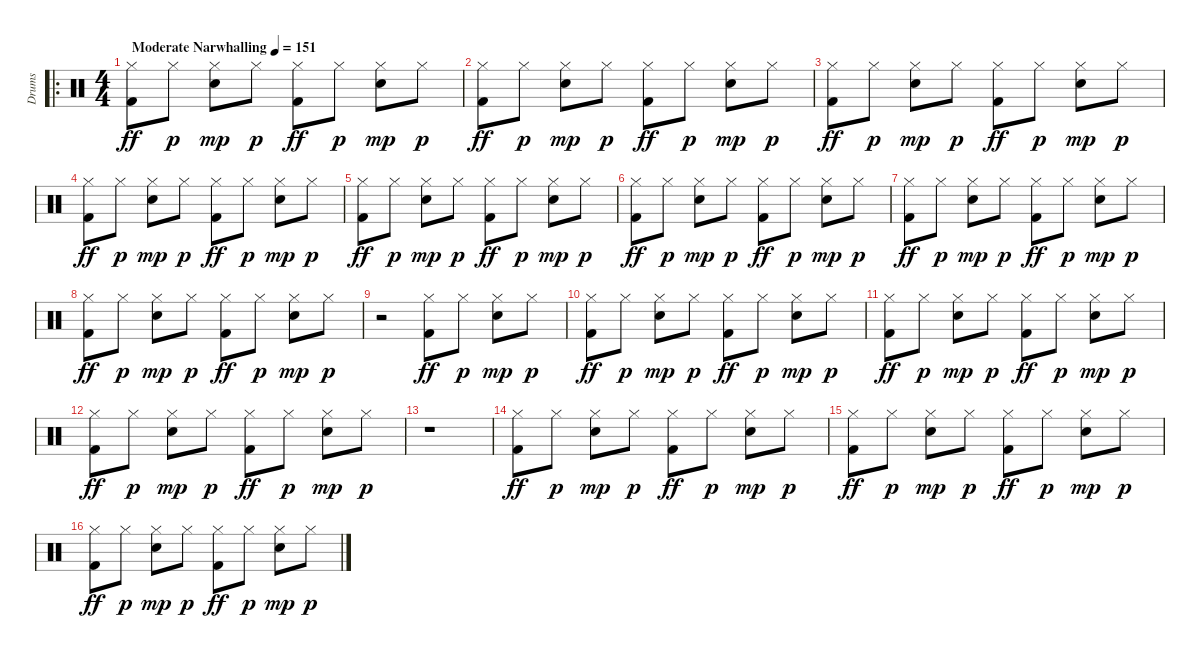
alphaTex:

\track ("Drums" "Drums") {instrument percussion}
\staff {score}
\articulation defaults
\ro
\ts (4 4)
\tempo (151 "Moderate Narwhalling")
\clef neutral
\ks c
("Hi-Hat (closed)" "Kick (hit) 2").8{dy ff} "Hi-Hat (closed)".8{dy p} ("Hi-Hat (closed)" "Snare (hit) 2").8{dy mp} "Hi-Hat (closed)".8{dy p} ("Hi-Hat (closed)" "Kick (hit) 2").8{dy ff} "Hi-Hat (closed)".8{dy p} ("Hi-Hat (closed)" "Snare (hit) 2").8{dy mp} "Hi-Hat (closed)".8{dy p} |
("Hi-Hat (closed)" "Kick (hit) 2").8{dy ff} "Hi-Hat (closed)".8{dy p} ("Hi-Hat (closed)" "Snare (hit) 2").8{dy mp} "Hi-Hat (closed)".8{dy p} ("Hi-Hat (closed)" "Kick (hit) 2").8{dy ff} "Hi-Hat (closed)".8{dy p} ("Hi-Hat (closed)" "Snare (hit) 2").8{dy mp} "Hi-Hat (closed)".8{dy p} |
("Hi-Hat (closed)" "Kick (hit) 2").8{dy ff} "Hi-Hat (closed)".8{dy p} ("Hi-Hat (closed)" "Snare (hit) 2").8{dy mp} "Hi-Hat (closed)".8{dy p} ("Hi-Hat (closed)" "Kick (hit) 2").8{dy ff} "Hi-Hat (closed)".8{dy p} ("Hi-Hat (closed)" "Snare (hit) 2").8{dy mp} "Hi-Hat (closed)".8{dy p} |
("Hi-Hat (closed)" "Kick (hit) 2").8{dy ff} "Hi-Hat (closed)".8{dy p} ("Hi-Hat (closed)" "Snare (hit) 2").8{dy mp} "Hi-Hat (closed)".8{dy p} ("Hi-Hat (closed)" "Kick (hit) 2").8{dy ff} "Hi-Hat (closed)".8{dy p} ("Hi-Hat (closed)" "Snare (hit) 2").8{dy mp} "Hi-Hat (closed)".8{dy p} |
("Hi-Hat (closed)" "Kick (hit) 2").8{dy ff} "Hi-Hat (closed)".8{dy p} ("Hi-Hat (closed)" "Snare (hit) 2").8{dy mp} "Hi-Hat (closed)".8{dy p} ("Hi-Hat (closed)" "Kick (hit) 2").8{dy ff} "Hi-Hat (closed)".8{dy p} ("Hi-Hat (closed)" "Snare (hit) 2").8{dy mp} "Hi-Hat (closed)".8{dy p} |
("Hi-Hat (closed)" "Kick (hit) 2").8{dy ff} "Hi-Hat (closed)".8{dy p} ("Hi-Hat (closed)" "Snare (hit) 2").8{dy mp} "Hi-Hat (closed)".8{dy p} ("Hi-Hat (closed)" "Kick (hit) 2").8{dy ff} "Hi-Hat (closed)".8{dy p} ("Hi-Hat (closed)" "Snare (hit) 2").8{dy mp} "Hi-Hat (closed)".8{dy p} |
("Hi-Hat (closed)" "Kick (hit) 2").8{dy ff} "Hi-Hat (closed)".8{dy p} ("Hi-Hat (closed)" "Snare (hit) 2").8{dy mp} "Hi-Hat (closed)".8{dy p} ("Hi-Hat (closed)" "Kick (hit) 2").8{dy ff} "Hi-Hat (closed)".8{dy p} ("Hi-Hat (closed)" "Snare (hit) 2").8{dy mp} "Hi-Hat (closed)".8{dy p} |
("Hi-Hat (closed)" "Kick (hit) 2").8{dy ff} "Hi-Hat (closed)".8{dy p} ("Hi-Hat (closed)" "Snare (hit) 2").8{dy mp} "Hi-Hat (closed)".8{dy p} ("Hi-Hat (closed)" "Kick (hit) 2").8{dy ff} "Hi-Hat (closed)".8{dy p} ("Hi-Hat (closed)" "Snare (hit) 2").8{dy mp} "Hi-Hat (closed)".8{dy p} |
r.2 ("Hi-Hat (closed)" "Kick (hit) 2").8{dy ff} "Hi-Hat (closed)".8{dy p} ("Hi-Hat (closed)" "Snare (hit) 2").8{dy mp} "Hi-Hat (closed)".8{dy p} |
("Hi-Hat (closed)" "Kick (hit) 2").8{dy ff} "Hi-Hat (closed)".8{dy p} ("Hi-Hat (closed)" "Snare (hit) 2").8{dy mp} "Hi-Hat (closed)".8{dy p} ("Hi-Hat (closed)" "Kick (hit) 2").8{dy ff} "Hi-Hat (closed)".8{dy p} ("Hi-Hat (closed)" "Snare (hit) 2").8{dy mp} "Hi-Hat (closed)".8{dy p} |
("Hi-Hat (closed)" "Kick (hit) 2").8{dy ff} "Hi-Hat (closed)".8{dy p} ("Hi-Hat (closed)" "Snare (hit) 2").8{dy mp} "Hi-Hat (closed)".8{dy p} ("Hi-Hat (closed)" "Kick (hit) 2").8{dy ff} "Hi-Hat (closed)".8{dy p} ("Hi-Hat (closed)" "Snare (hit) 2").8{dy mp} "Hi-Hat (closed)".8{dy p} |
("Hi-Hat (closed)" "Kick (hit) 2").8{dy ff} "Hi-Hat (closed)".8{dy p} ("Hi-Hat (closed)" "Snare (hit) 2").8{dy mp} "Hi-Hat (closed)".8{dy p} ("Hi-Hat (closed)" "Kick (hit) 2").8{dy ff} "Hi-Hat (closed)".8{dy p} ("Hi-Hat (closed)" "Snare (hit) 2").8{dy mp} "Hi-Hat (closed)".8{dy p} |
r.1 |
("Hi-Hat (closed)" "Kick (hit) 2").8{dy ff} "Hi-Hat (closed)".8{dy p} ("Hi-Hat (closed)" "Snare (hit) 2").8{dy mp} "Hi-Hat (closed)".8{dy p} ("Hi-Hat (closed)" "Kick (hit) 2").8{dy ff} "Hi-Hat (closed)".8{dy p} ("Hi-Hat (closed)" "Snare (hit) 2").8{dy mp} "Hi-Hat (closed)".8{dy p} |
("Hi-Hat (closed)" "Kick (hit) 2").8{dy ff} "Hi-Hat (closed)".8{dy p} ("Hi-Hat (closed)" "Snare (hit) 2").8{dy mp} "Hi-Hat (closed)".8{dy p} ("Hi-Hat (closed)" "Kick (hit) 2").8{dy ff} "Hi-Hat (closed)".8{dy p} ("Hi-Hat (closed)" "Snare (hit) 2").8{dy mp} "Hi-Hat (closed)".8{dy p} |
("Hi-Hat (closed)" "Kick (hit) 2").8{dy ff} "Hi-Hat (closed)".8{dy p} ("Hi-Hat (closed)" "Snare (hit) 2").8{dy mp} "Hi-Hat (closed)".8{dy p} ("Hi-Hat (closed)" "Kick (hit) 2").8{dy ff} "Hi-Hat (closed)".8{dy p} ("Hi-Hat (closed)" "Snare (hit) 2").8{dy mp} "Hi-Hat (closed)".8{dy p}
